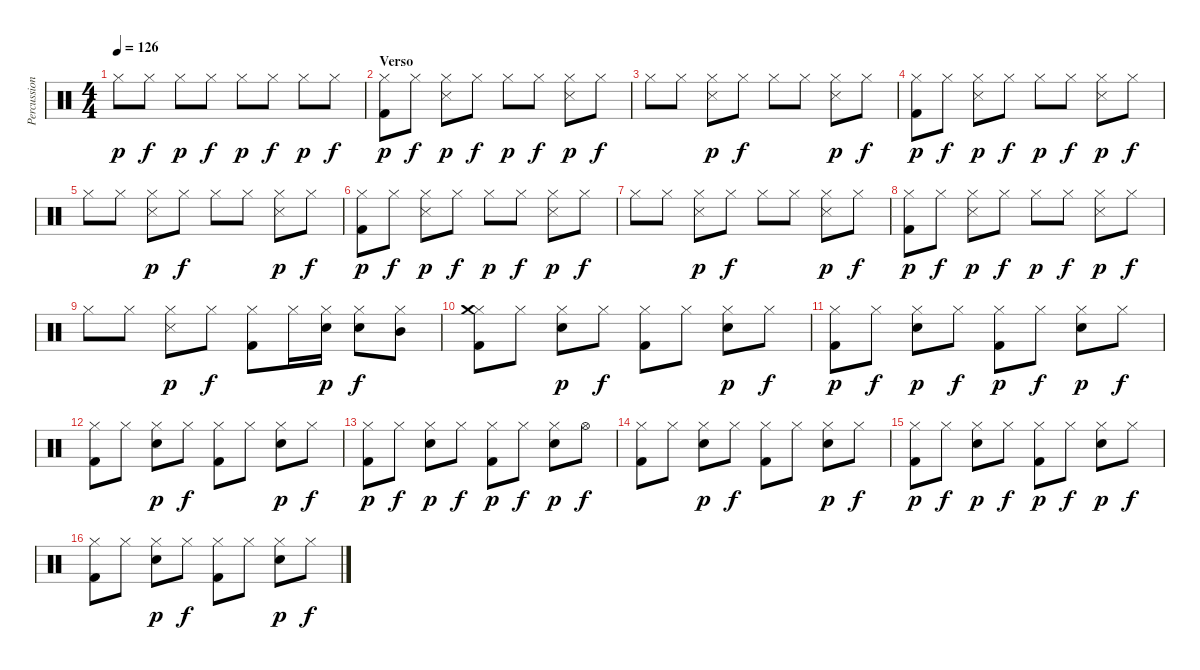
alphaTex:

\track ("Percussion" "Percussion") {instrument percussion}
\staff {score}
\articulation defaults
\ts (4 4)
\tempo 126
\clef neutral
\ks c "Hi-Hat (closed)".8{dy p} "Hi-Hat (closed)".8{dy f} "Hi-Hat (closed)".8{dy p} "Hi-Hat (closed)".8{dy f} "Hi-Hat (closed)".8{dy p} "Hi-Hat (closed)".8{dy f} "Hi-Hat (closed)".8{dy p} "Hi-Hat (closed)".8{dy f}
|
\section ("" "Verso")
("Hi-Hat (closed)" "Kick (hit) 2").8{dy p} "Hi-Hat (closed)".8{dy f} ("Hi-Hat (closed)" "Metronome (hit)").8{dy p} "Hi-Hat (closed)".8{dy f} "Hi-Hat (closed)".8{dy p} "Hi-Hat (closed)".8{dy f} ("Hi-Hat (closed)" "Metronome (hit)").8{dy p} "Hi-Hat (closed)".8{dy f} |
"Hi-Hat (closed)".8 "Hi-Hat (closed)".8 ("Hi-Hat (closed)" "Metronome (hit)").8{dy p} "Hi-Hat (closed)".8{dy f} "Hi-Hat (closed)".8 "Hi-Hat (closed)".8 ("Hi-Hat (closed)" "Metronome (hit)").8{dy p} "Hi-Hat (closed)".8{dy f} |
("Hi-Hat (closed)" "Kick (hit) 2").8{dy p} "Hi-Hat (closed)".8{dy f} ("Hi-Hat (closed)" "Metronome (hit)").8{dy p} "Hi-Hat (closed)".8{dy f} "Hi-Hat (closed)".8{dy p} "Hi-Hat (closed)".8{dy f} ("Hi-Hat (closed)" "Metronome (hit)").8{dy p} "Hi-Hat (closed)".8{dy f} |
"Hi-Hat (closed)".8 "Hi-Hat (closed)".8 ("Hi-Hat (closed)" "Metronome (hit)").8{dy p} "Hi-Hat (closed)".8{dy f} "Hi-Hat (closed)".8 "Hi-Hat (closed)".8 ("Hi-Hat (closed)" "Metronome (hit)").8{dy p} "Hi-Hat (closed)".8{dy f} |
("Hi-Hat (closed)" "Kick (hit) 2").8{dy p} "Hi-Hat (closed)".8{dy f} ("Hi-Hat (closed)" "Metronome (hit)").8{dy p} "Hi-Hat (closed)".8{dy f} "Hi-Hat (closed)".8{dy p} "Hi-Hat (closed)".8{dy f} ("Hi-Hat (closed)" "Metronome (hit)").8{dy p} "Hi-Hat (closed)".8{dy f} |
"Hi-Hat (closed)".8 "Hi-Hat (closed)".8 ("Hi-Hat (closed)" "Metronome (hit)").8{dy p} "Hi-Hat (closed)".8{dy f} "Hi-Hat (closed)".8 "Hi-Hat (closed)".8 ("Hi-Hat (closed)" "Metronome (hit)").8{dy p} "Hi-Hat (closed)".8{dy f} |
("Hi-Hat (closed)" "Kick (hit) 2").8{dy p} "Hi-Hat (closed)".8{dy f} ("Hi-Hat (closed)" "Metronome (hit)").8{dy p} "Hi-Hat (closed)".8{dy f} "Hi-Hat (closed)".8{dy p} "Hi-Hat (closed)".8{dy f} ("Hi-Hat (closed)" "Metronome (hit)").8{dy p} "Hi-Hat (closed)".8{dy f} |
"Hi-Hat (closed)".8 "Hi-Hat (closed)".8 ("Hi-Hat (closed)" "Metronome (hit)").8{dy p} "Hi-Hat (closed)".8{dy f} ("Hi-Hat (closed)" "Kick (hit) 2").8 "Hi-Hat (closed)".16 ("Hi-Hat (closed)" "Snare (hit) 2").16{dy p} ("Hi-Hat (closed)" "Snare (hit) 2").8{dy f} ("Hi-Hat (closed)" "Mid Tom (hit)").8 |
("Hi-Hat (closed)" "Crash medium (hit)" "Kick (hit) 2").8 "Hi-Hat (closed)".8 ("Hi-Hat (closed)" "Snare (hit) 2").8{dy p} "Hi-Hat (closed)".8{dy f} ("Hi-Hat (closed)" "Kick (hit) 2").8 "Hi-Hat (closed)".8 ("Hi-Hat (closed)" "Snare (hit) 2").8{dy p} "Hi-Hat (closed)".8{dy f} |
("Hi-Hat (closed)" "Kick (hit) 2").8{dy p} "Hi-Hat (closed)".8{dy f} ("Hi-Hat (closed)" "Snare (hit) 2").8{dy p} "Hi-Hat (closed)".8{dy f} ("Hi-Hat (closed)" "Kick (hit) 2").8{dy p} "Hi-Hat (closed)".8{dy f} ("Hi-Hat (closed)" "Snare (hit) 2").8{dy p} "Hi-Hat (closed)".8{dy f} |
("Hi-Hat (closed)" "Kick (hit) 2").8 "Hi-Hat (closed)".8 ("Hi-Hat (closed)" "Snare (hit) 2").8{dy p} "Hi-Hat (closed)".8{dy f} ("Hi-Hat (closed)" "Kick (hit) 2").8 "Hi-Hat (closed)".8 ("Hi-Hat (closed)" "Snare (hit) 2").8{dy p} "Hi-Hat (closed)".8{dy f} |
("Hi-Hat (closed)" "Kick (hit) 2").8{dy p} "Hi-Hat (closed)".8{dy f} ("Hi-Hat (closed)" "Snare (hit) 2").8{dy p} "Hi-Hat (closed)".8{dy f} ("Hi-Hat (closed)" "Kick (hit) 2").8{dy p} "Hi-Hat (closed)".8{dy f} ("Hi-Hat (closed)" "Snare (hit) 2").8{dy p} "Hi-Hat (open)".8{dy f} |
("Hi-Hat (closed)" "Kick (hit) 2").8 "Hi-Hat (closed)".8 ("Hi-Hat (closed)" "Snare (hit) 2").8{dy p} "Hi-Hat (closed)".8{dy f} ("Hi-Hat (closed)" "Kick (hit) 2").8 "Hi-Hat (closed)".8 ("Hi-Hat (closed)" "Snare (hit) 2").8{dy p} "Hi-Hat (closed)".8{dy f} |
("Hi-Hat (closed)" "Kick (hit) 2").8{dy p} "Hi-Hat (closed)".8{dy f} ("Hi-Hat (closed)" "Snare (hit) 2").8{dy p} "Hi-Hat (closed)".8{dy f} ("Hi-Hat (closed)" "Kick (hit) 2").8{dy p} "Hi-Hat (closed)".8{dy f} ("Hi-Hat (closed)" "Snare (hit) 2").8{dy p} "Hi-Hat (closed)".8{dy f} |
("Hi-Hat (closed)" "Kick (hit) 2").8 "Hi-Hat (closed)".8 ("Hi-Hat (closed)" "Snare (hit) 2").8{dy p} "Hi-Hat (closed)".8{dy f} ("Hi-Hat (closed)" "Kick (hit) 2").8 "Hi-Hat (closed)".8 ("Hi-Hat (closed)" "Snare (hit) 2").8{dy p} "Hi-Hat (closed)".8{dy f}
